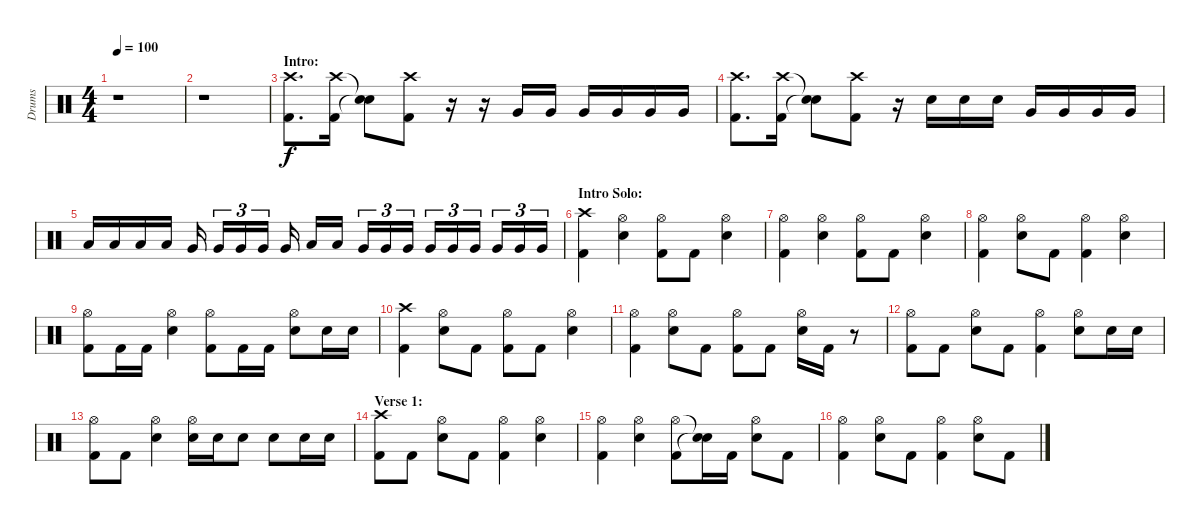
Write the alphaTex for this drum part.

\track ("Drums" "Drums") {instrument percussion}
\staff {score}
\articulation defaults
\ts (4 4)
\tempo 100
\clef neutral
\ks c
r.1{dy f} |
r.1 |
\section ("" "Intro:")
("Crash high (hit)" "Kick (hit) 2").8{d} ("Crash high (hit)" "Kick (hit) 2").16 ("Snare (hit)"{t} "Snare (hit)"{t}).8 ("Crash high (hit)" "Kick (hit) 2").8 r.16 r.16 "Very Low Tom (hit)".16 "Very Low Tom (hit)".16 "Very Low Tom (hit)".16 "Very Low Tom (hit)".16 "Very Low Tom (hit)".16 "Very Low Tom (hit)".16 |
("Crash high (hit)" "Kick (hit) 2").8{d} ("Crash high (hit)" "Kick (hit) 2").16 ("Snare (hit)"{t} "Snare (hit)"{t}).8 ("Crash high (hit)" "Kick (hit) 2").8 r.16 "Electric Snare (hit)".16 "Electric Snare (hit)".16 "Electric Snare (hit)".16 "Very Low Tom (hit)".16 "Very Low Tom (hit)".16 "Very Low Tom (hit)".16 "Very Low Tom (hit)".16 |
"Low Tom (hit)".16 "Low Tom (hit)".16 "Low Tom (hit)".16 "Low Tom (hit)".16 "Very Low Tom (hit)".16 "Very Low Tom (hit)".16{tu (3 2)} "Very Low Tom (hit)".16{tu (3 2)} "Very Low Tom (hit)".16{tu (3 2)} "Very Low Tom (hit)".16 "Low Floor Tom (hit)".16 "Low Floor Tom (hit)".16 "Very Low Tom (hit)".16{tu (3 2)} "Very Low Tom (hit)".16{tu (3 2)} "Very Low Tom (hit)".16{tu (3 2)} "Very Low Tom (hit)".16{tu (3 2)} "Very Low Tom (hit)".16{tu (3 2)} "Very Low Tom (hit)".16{tu (3 2)} "Very Low Tom (hit)".16{tu (3 2)} "Very Low Tom (hit)".16{tu (3 2)} "Very Low Tom (hit)".16{tu (3 2)} |
\section ("" "Intro Solo:")
("Crash high (hit)" "Kick (hit) 2").4 ("Hi-Hat (open)" "Electric Snare (hit)").4 ("Hi-Hat (open)" "Kick (hit) 2").8 "Kick (hit) 2".8 ("Hi-Hat (open)" "Electric Snare (hit)").4 |
("Hi-Hat (open)" "Kick (hit) 2").4 ("Hi-Hat (open)" "Electric Snare (hit)").4 ("Hi-Hat (open)" "Kick (hit) 2").8 "Kick (hit) 2".8 ("Hi-Hat (open)" "Electric Snare (hit)").4 |
("Hi-Hat (open)" "Kick (hit) 2").4 ("Hi-Hat (open)" "Electric Snare (hit)").8 "Kick (hit) 2".8 ("Hi-Hat (open)" "Kick (hit) 2").4 ("Hi-Hat (open)" "Electric Snare (hit)").4 |
("Hi-Hat (open)" "Kick (hit) 2").8 "Kick (hit) 2".16 "Kick (hit) 2".16 ("Hi-Hat (open)" "Electric Snare (hit)").4 ("Hi-Hat (open)" "Kick (hit) 2").8 "Kick (hit) 2".16 "Kick (hit) 2".16 ("Hi-Hat (open)" "Electric Snare (hit)").8 "Electric Snare (hit)".16 "Electric Snare (hit)".16 |
("Crash high (hit)" "Kick (hit) 2").4 ("Hi-Hat (open)" "Electric Snare (hit)").8 "Kick (hit) 2".8 ("Hi-Hat (open)" "Kick (hit) 2").8 "Kick (hit) 2".8 ("Hi-Hat (open)" "Electric Snare (hit)").4 |
("Hi-Hat (open)" "Kick (hit) 2").4 ("Hi-Hat (open)" "Electric Snare (hit)").8 "Kick (hit) 2".8 ("Hi-Hat (open)" "Kick (hit) 2").8 "Kick (hit) 2".8 ("Hi-Hat (open)" "Electric Snare (hit)").16 "Kick (hit) 2".16 r.8 |
("Hi-Hat (open)" "Kick (hit) 2").8 "Kick (hit) 2".8 ("Hi-Hat (open)" "Electric Snare (hit)").8 "Kick (hit) 2".8 ("Hi-Hat (open)" "Kick (hit) 2").4 ("Hi-Hat (open)" "Electric Snare (hit)").8 "Electric Snare (hit)".16 "Electric Snare (hit)".16 |
("Hi-Hat (open)" "Kick (hit) 2").8 "Kick (hit) 2".8 ("Hi-Hat (open)" "Electric Snare (hit)").4 ("Hi-Hat (open)" "Electric Snare (hit)").16 "Electric Snare (hit)".16 "Electric Snare (hit)".8 "Electric Snare (hit)".8 "Electric Snare (hit)".16 "Electric Snare (hit)".16 |
\section ("" "Verse 1:")
("Crash high (hit)" "Kick (hit) 2").8 "Kick (hit) 2".8 ("Hi-Hat (open)" "Electric Snare (hit)").8 "Kick (hit) 2".8 ("Hi-Hat (open)" "Kick (hit) 2").4 ("Hi-Hat (open)" "Electric Snare (hit)").4 |
("Hi-Hat (open)" "Kick (hit) 2").4 ("Hi-Hat (open)" "Electric Snare (hit)").4 ("Hi-Hat (open)" "Kick (hit) 2").8 ("Snare (hit)"{t} "Snare (hit)"{t}).16 "Kick (hit) 2".16 ("Hi-Hat (open)" "Electric Snare (hit)").8 "Kick (hit) 2".8 |
("Hi-Hat (open)" "Kick (hit) 2").4 ("Hi-Hat (open)" "Electric Snare (hit)").8 "Kick (hit) 2".8 ("Hi-Hat (open)" "Kick (hit) 2").4 ("Hi-Hat (open)" "Electric Snare (hit)").8 "Kick (hit) 2".8
